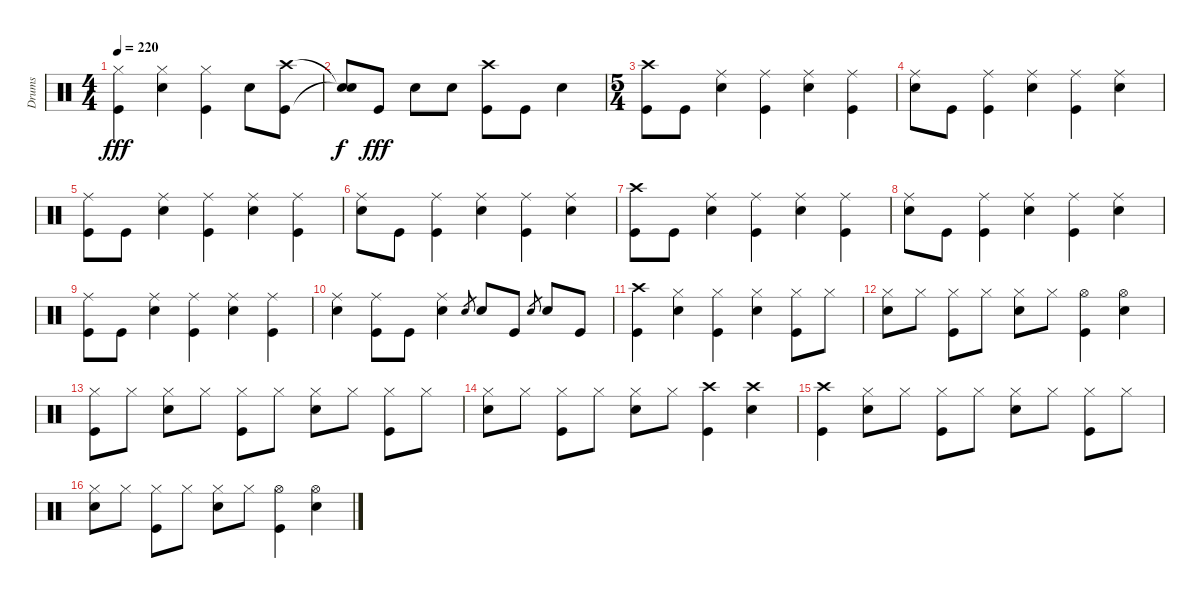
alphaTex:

\track ("Drums" "Drums") {instrument percussion}
\staff {score}
\articulation defaults
\ts (4 4)
\tempo 220
\clef neutral
\ks c
("Hi-Hat (closed)" "Kick (hit)").4{dy fff} ("Hi-Hat (closed)" "Snare (hit) 2").4 ("Hi-Hat (closed)" "Kick (hit)").4 "Snare (hit) 2".8 ("Crash high (hit)" "Kick (hit)").8 |
("Snare (hit)"{t} "Snare (hit)"{t}).8{dy f} "Kick (hit)".8{dy fff} "Snare (hit) 2".8 "Snare (hit) 2".8 ("Crash high (hit)" "Kick (hit)").8 "Kick (hit)".8 "Snare (hit) 2".4 |
\ts (5 4)
("Crash high (hit)" "Kick (hit)").8 "Kick (hit)".8 ("Ride (middle)" "Snare (hit) 2").4 ("Ride (middle)" "Kick (hit)").4 ("Ride (middle)" "Snare (hit) 2").4 ("Ride (middle)" "Kick (hit)").4 |
("Ride (middle)" "Snare (hit) 2").8 "Kick (hit)".8 ("Ride (middle)" "Kick (hit)").4 ("Ride (middle)" "Snare (hit) 2").4 ("Ride (middle)" "Kick (hit)").4 ("Ride (middle)" "Snare (hit) 2").4 |
("Ride (middle)" "Kick (hit)").8 "Kick (hit)".8 ("Ride (middle)" "Snare (hit) 2").4 ("Ride (middle)" "Kick (hit)").4 ("Ride (middle)" "Snare (hit) 2").4 ("Ride (middle)" "Kick (hit)").4 |
("Ride (middle)" "Snare (hit) 2").8 "Kick (hit)".8 ("Ride (middle)" "Kick (hit)").4 ("Ride (middle)" "Snare (hit) 2").4 ("Ride (middle)" "Kick (hit)").4 ("Ride (middle)" "Snare (hit) 2").4 |
("Crash high (hit)" "Kick (hit)").8 "Kick (hit)".8 ("Ride (middle)" "Snare (hit) 2").4 ("Ride (middle)" "Kick (hit)").4 ("Ride (middle)" "Snare (hit) 2").4 ("Ride (middle)" "Kick (hit)").4 |
("Ride (middle)" "Snare (hit) 2").8 "Kick (hit)".8 ("Ride (middle)" "Kick (hit)").4 ("Ride (middle)" "Snare (hit) 2").4 ("Ride (middle)" "Kick (hit)").4 ("Ride (middle)" "Snare (hit) 2").4 |
("Ride (middle)" "Kick (hit)").8 "Kick (hit)".8 ("Ride (middle)" "Snare (hit) 2").4 ("Ride (middle)" "Kick (hit)").4 ("Ride (middle)" "Snare (hit) 2").4 ("Ride (middle)" "Kick (hit)").4 |
("Ride (middle)" "Snare (hit) 2").4 ("Ride (middle)" "Kick (hit)").8 "Kick (hit)".8 ("Ride (middle)" "Snare (hit) 2").4 "Snare (hit) 2".8{gr} "Snare (hit) 2".8 "Kick (hit)".8 "Snare (hit) 2".8{gr} "Snare (hit) 2".8 "Kick (hit)".8 |
("Crash high (hit)" "Kick (hit)").4 ("Hi-Hat (closed)" "Snare (hit) 2").4 ("Hi-Hat (closed)" "Kick (hit)").4 ("Hi-Hat (closed)" "Snare (hit) 2").4 ("Hi-Hat (closed)" "Kick (hit)").8 "Hi-Hat (closed)".8 |
("Hi-Hat (closed)" "Snare (hit) 2").8 "Hi-Hat (closed)".8 ("Hi-Hat (closed)" "Kick (hit)").8 "Hi-Hat (closed)".8 ("Hi-Hat (closed)" "Snare (hit) 2").8 "Hi-Hat (closed)".8 ("Hi-Hat (open)" "Kick (hit)").4 ("Hi-Hat (open)" "Snare (hit) 2").4 |
("Hi-Hat (closed)" "Kick (hit)").8 "Hi-Hat (closed)".8 ("Hi-Hat (closed)" "Snare (hit) 2").8 "Hi-Hat (closed)".8 ("Hi-Hat (closed)" "Kick (hit)").8 "Hi-Hat (closed)".8 ("Hi-Hat (closed)" "Snare (hit) 2").8 "Hi-Hat (closed)".8 ("Hi-Hat (closed)" "Kick (hit)").8 "Hi-Hat (closed)".8 |
("Hi-Hat (closed)" "Snare (hit) 2").8 "Hi-Hat (closed)".8 ("Hi-Hat (closed)" "Kick (hit)").8 "Hi-Hat (closed)".8 ("Hi-Hat (closed)" "Snare (hit) 2").8 "Hi-Hat (closed)".8 ("Crash high (hit)" "Kick (hit)").4 ("Crash high (hit)" "Snare (hit) 2").4 |
("Crash high (hit)" "Kick (hit)").4 ("Hi-Hat (closed)" "Snare (hit) 2").8 "Hi-Hat (closed)".8 ("Hi-Hat (closed)" "Kick (hit)").8 "Hi-Hat (closed)".8 ("Hi-Hat (closed)" "Snare (hit) 2").8 "Hi-Hat (closed)".8 ("Hi-Hat (closed)" "Kick (hit)").8 "Hi-Hat (closed)".8 |
("Hi-Hat (closed)" "Snare (hit) 2").8 "Hi-Hat (closed)".8 ("Hi-Hat (closed)" "Kick (hit)").8 "Hi-Hat (closed)".8 ("Hi-Hat (closed)" "Snare (hit) 2").8 "Hi-Hat (closed)".8 ("Hi-Hat (open)" "Kick (hit)").4 ("Hi-Hat (open)" "Snare (hit) 2").4
